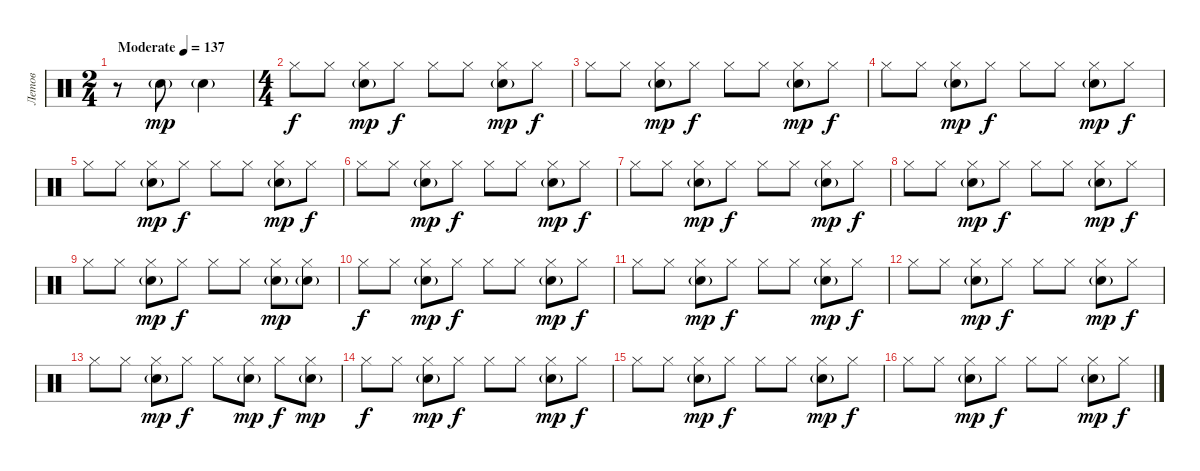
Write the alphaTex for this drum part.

\track ("Летов" "Летов") {instrument percussion}
\staff {score}
\articulation defaults
\ts (2 4)
\tempo (137 "Moderate")
\clef neutral
\ks c
r.8{dy mp} "Electric Snare (hit)"{g}.8 "Electric Snare (hit)"{g}.4 |
\ts (4 4)
"Hi-Hat (closed)".8{dy f} "Hi-Hat (closed)".8 ("Hi-Hat (closed)" "Electric Snare (hit)"{g}).8{dy mp} "Hi-Hat (closed)".8{dy f} "Hi-Hat (closed)".8 "Hi-Hat (closed)".8 ("Hi-Hat (closed)" "Electric Snare (hit)"{g}).8{dy mp} "Hi-Hat (closed)".8{dy f} |
"Hi-Hat (closed)".8 "Hi-Hat (closed)".8 ("Hi-Hat (closed)" "Electric Snare (hit)"{g}).8{dy mp} "Hi-Hat (closed)".8{dy f} "Hi-Hat (closed)".8 "Hi-Hat (closed)".8 ("Hi-Hat (closed)" "Electric Snare (hit)"{g}).8{dy mp} "Hi-Hat (closed)".8{dy f} |
"Hi-Hat (closed)".8 "Hi-Hat (closed)".8 ("Hi-Hat (closed)" "Electric Snare (hit)"{g}).8{dy mp} "Hi-Hat (closed)".8{dy f} "Hi-Hat (closed)".8 "Hi-Hat (closed)".8 ("Hi-Hat (closed)" "Electric Snare (hit)"{g}).8{dy mp} "Hi-Hat (closed)".8{dy f} |
"Hi-Hat (closed)".8 "Hi-Hat (closed)".8 ("Hi-Hat (closed)" "Electric Snare (hit)"{g}).8{dy mp} "Hi-Hat (closed)".8{dy f} "Hi-Hat (closed)".8 "Hi-Hat (closed)".8 ("Hi-Hat (closed)" "Electric Snare (hit)"{g}).8{dy mp} "Hi-Hat (closed)".8{dy f} |
"Hi-Hat (closed)".8 "Hi-Hat (closed)".8 ("Hi-Hat (closed)" "Electric Snare (hit)"{g}).8{dy mp} "Hi-Hat (closed)".8{dy f} "Hi-Hat (closed)".8 "Hi-Hat (closed)".8 ("Hi-Hat (closed)" "Electric Snare (hit)"{g}).8{dy mp} "Hi-Hat (closed)".8{dy f} |
"Hi-Hat (closed)".8 "Hi-Hat (closed)".8 ("Hi-Hat (closed)" "Electric Snare (hit)"{g}).8{dy mp} "Hi-Hat (closed)".8{dy f} "Hi-Hat (closed)".8 "Hi-Hat (closed)".8 ("Hi-Hat (closed)" "Electric Snare (hit)"{g}).8{dy mp} "Hi-Hat (closed)".8{dy f} |
"Hi-Hat (closed)".8 "Hi-Hat (closed)".8 ("Hi-Hat (closed)" "Electric Snare (hit)"{g}).8{dy mp} "Hi-Hat (closed)".8{dy f} "Hi-Hat (closed)".8 "Hi-Hat (closed)".8 ("Hi-Hat (closed)" "Electric Snare (hit)"{g}).8{dy mp} "Hi-Hat (closed)".8{dy f} |
"Hi-Hat (closed)".8 "Hi-Hat (closed)".8 ("Hi-Hat (closed)" "Electric Snare (hit)"{g}).8{dy mp} "Hi-Hat (closed)".8{dy f} "Hi-Hat (closed)".8 "Hi-Hat (closed)".8 ("Hi-Hat (closed)" "Electric Snare (hit)"{g}).8{dy mp} ("Hi-Hat (closed)" "Electric Snare (hit)"{g}).8 |
"Hi-Hat (closed)".8{dy f} "Hi-Hat (closed)".8 ("Hi-Hat (closed)" "Electric Snare (hit)"{g}).8{dy mp} "Hi-Hat (closed)".8{dy f} "Hi-Hat (closed)".8 "Hi-Hat (closed)".8 ("Hi-Hat (closed)" "Electric Snare (hit)"{g}).8{dy mp} "Hi-Hat (closed)".8{dy f} |
"Hi-Hat (closed)".8 "Hi-Hat (closed)".8 ("Hi-Hat (closed)" "Electric Snare (hit)"{g}).8{dy mp} "Hi-Hat (closed)".8{dy f} "Hi-Hat (closed)".8 "Hi-Hat (closed)".8 ("Hi-Hat (closed)" "Electric Snare (hit)"{g}).8{dy mp} "Hi-Hat (closed)".8{dy f} |
"Hi-Hat (closed)".8 "Hi-Hat (closed)".8 ("Hi-Hat (closed)" "Electric Snare (hit)"{g}).8{dy mp} "Hi-Hat (closed)".8{dy f} "Hi-Hat (closed)".8 "Hi-Hat (closed)".8 ("Hi-Hat (closed)" "Electric Snare (hit)"{g}).8{dy mp} "Hi-Hat (closed)".8{dy f} |
"Hi-Hat (closed)".8 "Hi-Hat (closed)".8 ("Hi-Hat (closed)" "Electric Snare (hit)"{g}).8{dy mp} "Hi-Hat (closed)".8{dy f} "Hi-Hat (closed)".8 ("Hi-Hat (closed)" "Electric Snare (hit)"{g}).8{dy mp} "Hi-Hat (closed)".8{dy f} ("Hi-Hat (closed)" "Electric Snare (hit)"{g}).8{dy mp} |
"Hi-Hat (closed)".8{dy f} "Hi-Hat (closed)".8 ("Hi-Hat (closed)" "Electric Snare (hit)"{g}).8{dy mp} "Hi-Hat (closed)".8{dy f} "Hi-Hat (closed)".8 "Hi-Hat (closed)".8 ("Hi-Hat (closed)" "Electric Snare (hit)"{g}).8{dy mp} "Hi-Hat (closed)".8{dy f} |
"Hi-Hat (closed)".8 "Hi-Hat (closed)".8 ("Hi-Hat (closed)" "Electric Snare (hit)"{g}).8{dy mp} "Hi-Hat (closed)".8{dy f} "Hi-Hat (closed)".8 "Hi-Hat (closed)".8 ("Hi-Hat (closed)" "Electric Snare (hit)"{g}).8{dy mp} "Hi-Hat (closed)".8{dy f} |
"Hi-Hat (closed)".8 "Hi-Hat (closed)".8 ("Hi-Hat (closed)" "Electric Snare (hit)"{g}).8{dy mp} "Hi-Hat (closed)".8{dy f} "Hi-Hat (closed)".8 "Hi-Hat (closed)".8 ("Hi-Hat (closed)" "Electric Snare (hit)"{g}).8{dy mp} "Hi-Hat (closed)".8{dy f}
